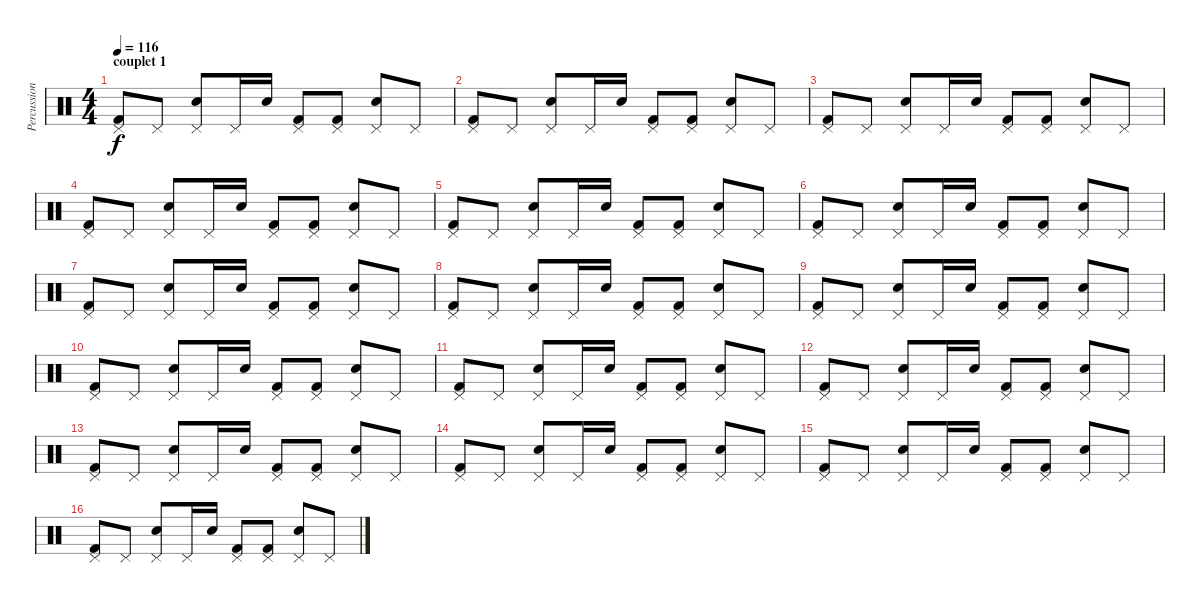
\track ("Percussions" "Percussion") {instrument percussion}
\staff {score}
\articulation defaults
\ts (4 4)
\section ("" "couplet 1")
\tempo 116
\clef neutral
\ks c
("Pedal Hi-Hat (hit)" "Kick (hit) 2").8{dy f} "Pedal Hi-Hat (hit)".8 ("Pedal Hi-Hat (hit)" "Electric Snare (hit)").8 "Pedal Hi-Hat (hit)".16 "Electric Snare (hit)".16 ("Pedal Hi-Hat (hit)" "Kick (hit) 2").8 ("Pedal Hi-Hat (hit)" "Kick (hit) 2").8 ("Pedal Hi-Hat (hit)" "Electric Snare (hit)").8 "Pedal Hi-Hat (hit)".8 |
("Pedal Hi-Hat (hit)" "Kick (hit) 2").8 "Pedal Hi-Hat (hit)".8 ("Pedal Hi-Hat (hit)" "Electric Snare (hit)").8 "Pedal Hi-Hat (hit)".16 "Electric Snare (hit)".16 ("Pedal Hi-Hat (hit)" "Kick (hit) 2").8 ("Pedal Hi-Hat (hit)" "Kick (hit) 2").8 ("Pedal Hi-Hat (hit)" "Electric Snare (hit)").8 "Pedal Hi-Hat (hit)".8 |
("Pedal Hi-Hat (hit)" "Kick (hit) 2").8 "Pedal Hi-Hat (hit)".8 ("Pedal Hi-Hat (hit)" "Electric Snare (hit)").8 "Pedal Hi-Hat (hit)".16 "Electric Snare (hit)".16 ("Pedal Hi-Hat (hit)" "Kick (hit) 2").8 ("Pedal Hi-Hat (hit)" "Kick (hit) 2").8 ("Pedal Hi-Hat (hit)" "Electric Snare (hit)").8 "Pedal Hi-Hat (hit)".8 |
("Pedal Hi-Hat (hit)" "Kick (hit) 2").8 "Pedal Hi-Hat (hit)".8 ("Pedal Hi-Hat (hit)" "Electric Snare (hit)").8 "Pedal Hi-Hat (hit)".16 "Electric Snare (hit)".16 ("Pedal Hi-Hat (hit)" "Kick (hit) 2").8 ("Pedal Hi-Hat (hit)" "Kick (hit) 2").8 ("Pedal Hi-Hat (hit)" "Electric Snare (hit)").8 "Pedal Hi-Hat (hit)".8 |
("Pedal Hi-Hat (hit)" "Kick (hit) 2").8 "Pedal Hi-Hat (hit)".8 ("Pedal Hi-Hat (hit)" "Electric Snare (hit)").8 "Pedal Hi-Hat (hit)".16 "Electric Snare (hit)".16 ("Pedal Hi-Hat (hit)" "Kick (hit) 2").8 ("Pedal Hi-Hat (hit)" "Kick (hit) 2").8 ("Pedal Hi-Hat (hit)" "Electric Snare (hit)").8 "Pedal Hi-Hat (hit)".8 |
("Pedal Hi-Hat (hit)" "Kick (hit) 2").8 "Pedal Hi-Hat (hit)".8 ("Pedal Hi-Hat (hit)" "Electric Snare (hit)").8 "Pedal Hi-Hat (hit)".16 "Electric Snare (hit)".16 ("Pedal Hi-Hat (hit)" "Kick (hit) 2").8 ("Pedal Hi-Hat (hit)" "Kick (hit) 2").8 ("Pedal Hi-Hat (hit)" "Electric Snare (hit)").8 "Pedal Hi-Hat (hit)".8 |
("Pedal Hi-Hat (hit)" "Kick (hit) 2").8 "Pedal Hi-Hat (hit)".8 ("Pedal Hi-Hat (hit)" "Electric Snare (hit)").8 "Pedal Hi-Hat (hit)".16 "Electric Snare (hit)".16 ("Pedal Hi-Hat (hit)" "Kick (hit) 2").8 ("Pedal Hi-Hat (hit)" "Kick (hit) 2").8 ("Pedal Hi-Hat (hit)" "Electric Snare (hit)").8 "Pedal Hi-Hat (hit)".8 |
("Pedal Hi-Hat (hit)" "Kick (hit) 2").8 "Pedal Hi-Hat (hit)".8 ("Pedal Hi-Hat (hit)" "Electric Snare (hit)").8 "Pedal Hi-Hat (hit)".16 "Electric Snare (hit)".16 ("Pedal Hi-Hat (hit)" "Kick (hit) 2").8 ("Pedal Hi-Hat (hit)" "Kick (hit) 2").8 ("Pedal Hi-Hat (hit)" "Electric Snare (hit)").8 "Pedal Hi-Hat (hit)".8 |
("Pedal Hi-Hat (hit)" "Kick (hit) 2").8 "Pedal Hi-Hat (hit)".8 ("Pedal Hi-Hat (hit)" "Electric Snare (hit)").8 "Pedal Hi-Hat (hit)".16 "Electric Snare (hit)".16 ("Pedal Hi-Hat (hit)" "Kick (hit) 2").8 ("Pedal Hi-Hat (hit)" "Kick (hit) 2").8 ("Pedal Hi-Hat (hit)" "Electric Snare (hit)").8 "Pedal Hi-Hat (hit)".8 |
("Pedal Hi-Hat (hit)" "Kick (hit) 2").8 "Pedal Hi-Hat (hit)".8 ("Pedal Hi-Hat (hit)" "Electric Snare (hit)").8 "Pedal Hi-Hat (hit)".16 "Electric Snare (hit)".16 ("Pedal Hi-Hat (hit)" "Kick (hit) 2").8 ("Pedal Hi-Hat (hit)" "Kick (hit) 2").8 ("Pedal Hi-Hat (hit)" "Electric Snare (hit)").8 "Pedal Hi-Hat (hit)".8 |
("Pedal Hi-Hat (hit)" "Kick (hit) 2").8 "Pedal Hi-Hat (hit)".8 ("Pedal Hi-Hat (hit)" "Electric Snare (hit)").8 "Pedal Hi-Hat (hit)".16 "Electric Snare (hit)".16 ("Pedal Hi-Hat (hit)" "Kick (hit) 2").8 ("Pedal Hi-Hat (hit)" "Kick (hit) 2").8 ("Pedal Hi-Hat (hit)" "Electric Snare (hit)").8 "Pedal Hi-Hat (hit)".8 |
("Pedal Hi-Hat (hit)" "Kick (hit) 2").8 "Pedal Hi-Hat (hit)".8 ("Pedal Hi-Hat (hit)" "Electric Snare (hit)").8 "Pedal Hi-Hat (hit)".16 "Electric Snare (hit)".16 ("Pedal Hi-Hat (hit)" "Kick (hit) 2").8 ("Pedal Hi-Hat (hit)" "Kick (hit) 2").8 ("Pedal Hi-Hat (hit)" "Electric Snare (hit)").8 "Pedal Hi-Hat (hit)".8 |
("Pedal Hi-Hat (hit)" "Kick (hit) 2").8 "Pedal Hi-Hat (hit)".8 ("Pedal Hi-Hat (hit)" "Electric Snare (hit)").8 "Pedal Hi-Hat (hit)".16 "Electric Snare (hit)".16 ("Pedal Hi-Hat (hit)" "Kick (hit) 2").8 ("Pedal Hi-Hat (hit)" "Kick (hit) 2").8 ("Pedal Hi-Hat (hit)" "Electric Snare (hit)").8 "Pedal Hi-Hat (hit)".8 |
("Pedal Hi-Hat (hit)" "Kick (hit) 2").8 "Pedal Hi-Hat (hit)".8 ("Pedal Hi-Hat (hit)" "Electric Snare (hit)").8 "Pedal Hi-Hat (hit)".16 "Electric Snare (hit)".16 ("Pedal Hi-Hat (hit)" "Kick (hit) 2").8 ("Pedal Hi-Hat (hit)" "Kick (hit) 2").8 ("Pedal Hi-Hat (hit)" "Electric Snare (hit)").8 "Pedal Hi-Hat (hit)".8 |
("Pedal Hi-Hat (hit)" "Kick (hit) 2").8 "Pedal Hi-Hat (hit)".8 ("Pedal Hi-Hat (hit)" "Electric Snare (hit)").8 "Pedal Hi-Hat (hit)".16 "Electric Snare (hit)".16 ("Pedal Hi-Hat (hit)" "Kick (hit) 2").8 ("Pedal Hi-Hat (hit)" "Kick (hit) 2").8 ("Pedal Hi-Hat (hit)" "Electric Snare (hit)").8 "Pedal Hi-Hat (hit)".8 |
("Pedal Hi-Hat (hit)" "Kick (hit) 2").8 "Pedal Hi-Hat (hit)".8 ("Pedal Hi-Hat (hit)" "Electric Snare (hit)").8 "Pedal Hi-Hat (hit)".16 "Electric Snare (hit)".16 ("Pedal Hi-Hat (hit)" "Kick (hit) 2").8 ("Pedal Hi-Hat (hit)" "Kick (hit) 2").8 ("Pedal Hi-Hat (hit)" "Electric Snare (hit)").8 "Pedal Hi-Hat (hit)".8
